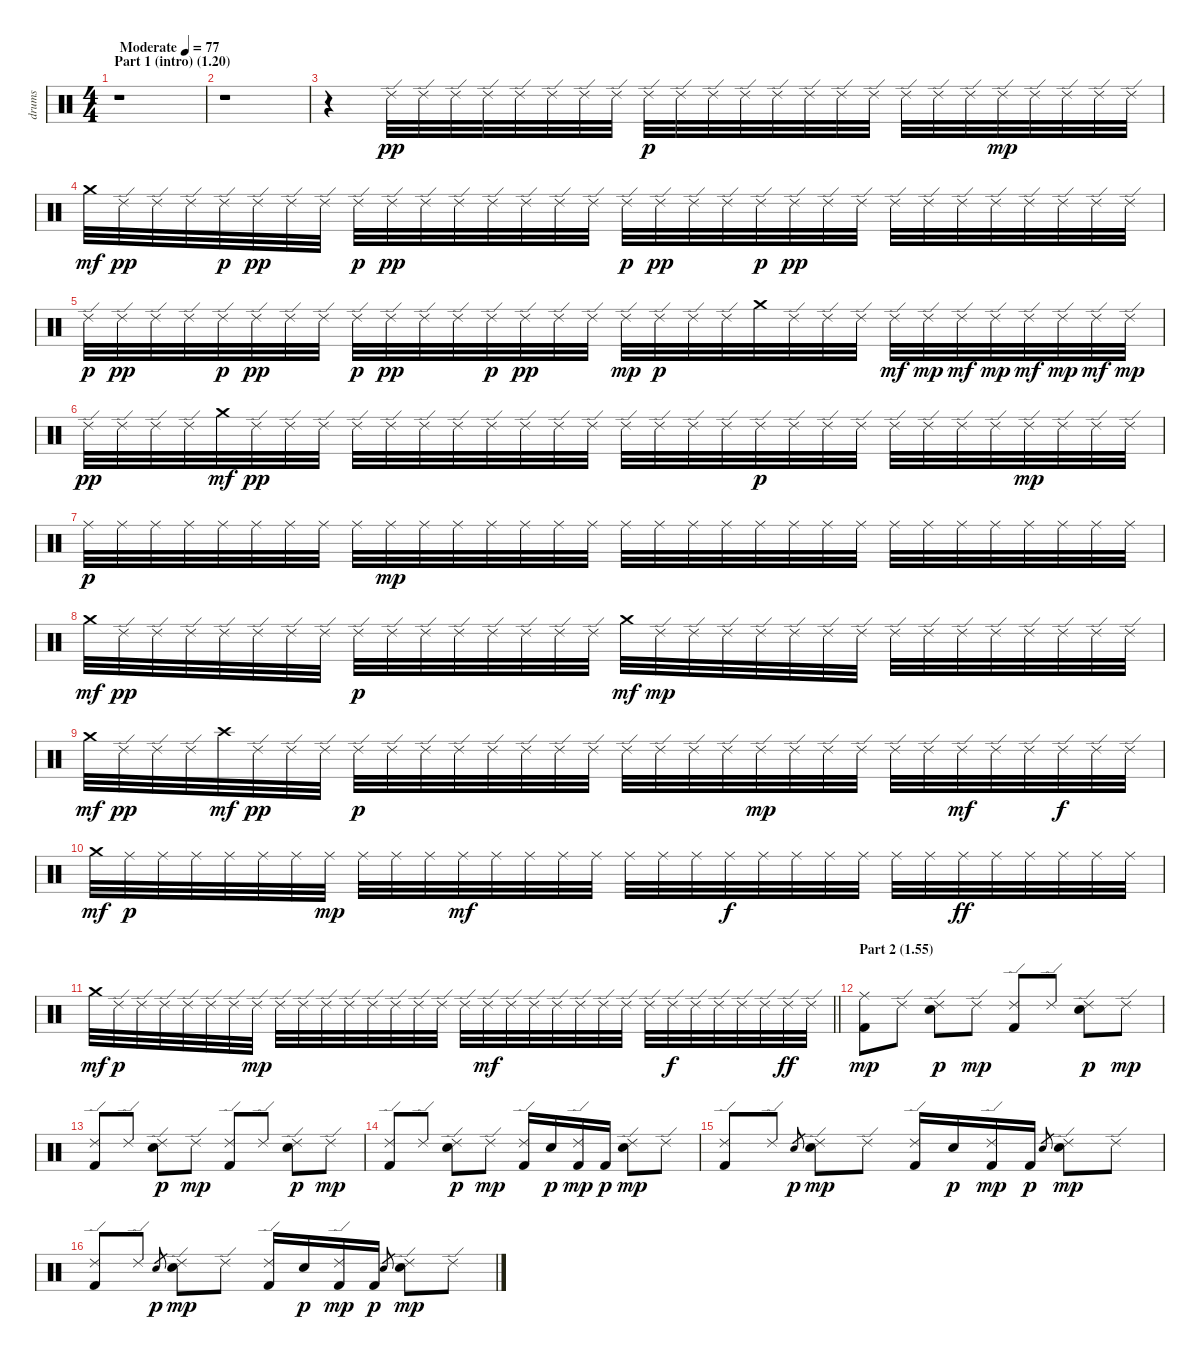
\track ("drums" "drums") {instrument percussion}
\staff {score}
\articulation defaults
\ts (4 4)
\section ("" "Part 1 (intro) (1.20)")
\tempo (77 "Moderate")
\clef neutral
\ks c
r.1{dy pp} |
r.1 |
r.4 "Ride (edge) 2".32 "Ride (edge) 2".32 "Ride (edge) 2".32 "Ride (edge) 2".32 "Ride (edge) 2".32 "Ride (edge) 2".32 "Ride (edge) 2".32 "Ride (edge) 2".32 "Ride (edge) 2".32{dy p} "Ride (edge) 2".32 "Ride (edge) 2".32 "Ride (edge) 2".32 "Ride (edge) 2".32 "Ride (edge) 2".32 "Ride (edge) 2".32 "Ride (edge) 2".32 "Ride (edge) 2".32 "Ride (edge) 2".32 "Ride (edge) 2".32 "Ride (edge) 2".32{dy mp} "Ride (edge) 2".32 "Ride (edge) 2".32 "Ride (edge) 2".32 "Ride (edge) 2".32 |
"Crash medium (hit)".32{dy mf} "Ride (edge) 2".32{dy pp} "Ride (edge) 2".32 "Ride (edge) 2".32 "Ride (edge) 2".32{dy p} "Ride (edge) 2".32{dy pp} "Ride (edge) 2".32 "Ride (edge) 2".32 "Ride (edge) 2".32{dy p} "Ride (edge) 2".32{dy pp} "Ride (edge) 2".32 "Ride (edge) 2".32 "Ride (edge) 2".32 "Ride (edge) 2".32 "Ride (edge) 2".32 "Ride (edge) 2".32 "Ride (edge) 2".32{dy p} "Ride (edge) 2".32{dy pp} "Ride (edge) 2".32 "Ride (edge) 2".32 "Ride (edge) 2".32{dy p} "Ride (edge) 2".32{dy pp} "Ride (edge) 2".32 "Ride (edge) 2".32 "Ride (edge) 2".32 "Ride (edge) 2".32 "Ride (edge) 2".32 "Ride (edge) 2".32 "Ride (edge) 2".32 "Ride (edge) 2".32 "Ride (edge) 2".32 "Ride (edge) 2".32 |
"Ride (edge) 2".32{dy p} "Ride (edge) 2".32{dy pp} "Ride (edge) 2".32 "Ride (edge) 2".32 "Ride (edge) 2".32{dy p} "Ride (edge) 2".32{dy pp} "Ride (edge) 2".32 "Ride (edge) 2".32 "Ride (edge) 2".32{dy p} "Ride (edge) 2".32{dy pp} "Ride (edge) 2".32 "Ride (edge) 2".32 "Ride (edge) 2".32{dy p} "Ride (edge) 2".32{dy pp} "Ride (edge) 2".32 "Ride (edge) 2".32 "Ride (edge) 2".32{dy mp} "Ride (edge) 2".32{dy p} "Ride (edge) 2".32 "Ride (edge) 2".32 "Crash medium (hit)".32 "Ride (edge) 2".32 "Ride (edge) 2".32 "Ride (edge) 2".32 "Ride (edge) 2".32{dy mf} "Ride (edge) 2".32{dy mp} "Ride (edge) 2".32{dy mf} "Ride (edge) 2".32{dy mp} "Ride (edge) 2".32{dy mf} "Ride (edge) 2".32{dy mp} "Ride (edge) 2".32{dy mf} "Ride (edge) 2".32{dy mp} |
"Ride (edge) 2".32{dy pp} "Ride (edge) 2".32 "Ride (edge) 2".32 "Ride (edge) 2".32 "Crash medium (hit)".32{dy mf} "Ride (edge) 2".32{dy pp} "Ride (edge) 2".32 "Ride (edge) 2".32 "Ride (edge) 2".32 "Ride (edge) 2".32 "Ride (edge) 2".32 "Ride (edge) 2".32 "Ride (edge) 2".32 "Ride (edge) 2".32 "Ride (edge) 2".32 "Ride (edge) 2".32 "Ride (edge) 2".32 "Ride (edge) 2".32 "Ride (edge) 2".32 "Ride (edge) 2".32 "Ride (edge) 2".32{dy p} "Ride (edge) 2".32 "Ride (edge) 2".32 "Ride (edge) 2".32 "Ride (edge) 2".32 "Ride (edge) 2".32 "Ride (edge) 2".32 "Ride (edge) 2".32 "Ride (edge) 2".32{dy mp} "Ride (edge) 2".32 "Ride (edge) 2".32 "Ride (edge) 2".32 |
"Ride (middle)".32{dy p} "Ride (middle)".32 "Ride (middle)".32 "Ride (middle)".32 "Ride (middle)".32 "Ride (middle)".32 "Ride (middle)".32 "Ride (middle)".32 "Ride (middle)".32 "Ride (middle)".32{dy mp} "Ride (middle)".32 "Ride (middle)".32 "Ride (middle)".32 "Ride (middle)".32 "Ride (middle)".32 "Ride (middle)".32 "Ride (middle)".32 "Ride (middle)".32 "Ride (middle)".32 "Ride (middle)".32 "Ride (middle)".32 "Ride (middle)".32 "Ride (middle)".32 "Ride (middle)".32 "Ride (middle)".32 "Ride (middle)".32 "Ride (middle)".32 "Ride (middle)".32 "Ride (middle)".32 "Ride (middle)".32 "Ride (middle)".32 "Ride (middle)".32 |
"Crash medium (hit)".32{dy mf} "Ride (edge) 2".32{dy pp} "Ride (edge) 2".32 "Ride (edge) 2".32 "Ride (edge) 2".32 "Ride (edge) 2".32 "Ride (edge) 2".32 "Ride (edge) 2".32 "Ride (edge) 2".32{dy p} "Ride (edge) 2".32 "Ride (edge) 2".32 "Ride (edge) 2".32 "Ride (edge) 2".32 "Ride (edge) 2".32 "Ride (edge) 2".32 "Ride (edge) 2".32 "Crash medium (hit)".32{dy mf} "Ride (edge) 2".32{dy mp} "Ride (edge) 2".32 "Ride (edge) 2".32 "Ride (edge) 2".32 "Ride (edge) 2".32 "Ride (edge) 2".32 "Ride (edge) 2".32 "Ride (edge) 2".32 "Ride (edge) 2".32 "Ride (edge) 2".32 "Ride (edge) 2".32 "Ride (edge) 2".32 "Ride (edge) 2".32 "Ride (edge) 2".32 "Ride (edge) 2".32 |
"Crash medium (hit)".32{dy mf} "Ride (edge) 2".32{dy pp} "Ride (edge) 2".32 "Ride (edge) 2".32 "Crash high (hit)".32{dy mf} "Ride (edge) 2".32{dy pp} "Ride (edge) 2".32 "Ride (edge) 2".32 "Ride (edge) 2".32{dy p} "Ride (edge) 2".32 "Ride (edge) 2".32 "Ride (edge) 2".32 "Ride (edge) 2".32 "Ride (edge) 2".32 "Ride (edge) 2".32 "Ride (edge) 2".32 "Ride (edge) 2".32 "Ride (edge) 2".32 "Ride (edge) 2".32 "Ride (edge) 2".32 "Ride (edge) 2".32{dy mp} "Ride (edge) 2".32 "Ride (edge) 2".32 "Ride (edge) 2".32 "Ride (edge) 2".32 "Ride (edge) 2".32 "Ride (edge) 2".32{dy mf} "Ride (edge) 2".32 "Ride (edge) 2".32 "Ride (edge) 2".32{dy f} "Ride (edge) 2".32 "Ride (edge) 2".32 |
"Crash medium (hit)".32{dy mf} "Ride (middle)".32{dy p} "Ride (middle)".32 "Ride (middle)".32 "Ride (middle)".32 "Ride (middle)".32 "Ride (middle)".32 "Ride (middle)".32{dy mp} "Ride (middle)".32 "Ride (middle)".32 "Ride (middle)".32 "Ride (middle)".32{dy mf} "Ride (middle)".32 "Ride (middle)".32 "Ride (middle)".32 "Ride (middle)".32 "Ride (middle)".32 "Ride (middle)".32 "Ride (middle)".32 "Ride (middle)".32{dy f} "Ride (middle)".32 "Ride (middle)".32 "Ride (middle)".32 "Ride (middle)".32 "Ride (middle)".32 "Ride (middle)".32 "Ride (middle)".32{dy ff} "Ride (middle)".32 "Ride (middle)".32 "Ride (middle)".32 "Ride (middle)".32 "Ride (middle)".32 |
\barLineRight lightlight "Crash medium (hit)".32{dy mf} "Ride (edge) 2".32{dy p} "Ride (edge) 2".32 "Ride (edge) 2".32 "Ride (edge) 2".32 "Ride (edge) 2".32 "Ride (edge) 2".32 "Ride (edge) 2".32{dy mp} "Ride (edge) 2".32 "Ride (edge) 2".32 "Ride (edge) 2".32 "Ride (edge) 2".32 "Ride (edge) 2".32 "Ride (edge) 2".32 "Ride (edge) 2".32 "Ride (edge) 2".32 "Ride (edge) 2".32 "Ride (edge) 2".32{dy mf} "Ride (edge) 2".32 "Ride (edge) 2".32 "Ride (edge) 2".32 "Ride (edge) 2".32 "Ride (edge) 2".32 "Ride (edge) 2".32 "Ride (edge) 2".32 "Ride (edge) 2".32{dy f} "Ride (edge) 2".32 "Ride (edge) 2".32 "Ride (edge) 2".32 "Ride (edge) 2".32 "Ride (edge) 2".32{dy ff} "Ride (edge) 2".32
|
\section ("" "Part 2 (1.55)")
("Ride (middle)" "Kick (hit) 2").8{dy mp} "Ride (edge) 2".8 ("Ride (edge) 2" "Snare (hit) 2").8{dy p} "Ride (edge) 2".8{dy mp} ("Ride (edge) 2" "Kick (hit) 2").8 "Ride (edge) 2".8 ("Ride (edge) 2" "Snare (hit) 2").8{dy p} "Ride (edge) 2".8{dy mp} |
("Ride (edge) 2" "Kick (hit) 2").8 "Ride (edge) 2".8 ("Ride (edge) 2" "Snare (hit) 2").8{dy p} "Ride (edge) 2".8{dy mp} ("Ride (edge) 2" "Kick (hit) 2").8 "Ride (edge) 2".8 ("Ride (edge) 2" "Snare (hit) 2").8{dy p} "Ride (edge) 2".8{dy mp} |
("Ride (edge) 2" "Kick (hit) 2").8 "Ride (edge) 2".8 ("Ride (edge) 2" "Snare (hit) 2").8{dy p} "Ride (edge) 2".8{dy mp} ("Ride (edge) 2" "Kick (hit) 2").16 "Snare (hit) 2".16{dy p} ("Kick (hit) 2" "Ride (edge) 2").16{dy mp} "Kick (hit) 2".16{dy p} ("Ride (edge) 2" "Snare (hit) 2").8{dy mp} "Ride (edge) 2".8 |
("Ride (edge) 2" "Kick (hit) 2").8 "Ride (edge) 2".8 "Snare (hit) 2".8{gr dy p} ("Ride (edge) 2" "Snare (hit) 2").8{dy mp} "Ride (edge) 2".8 ("Ride (edge) 2" "Kick (hit) 2").16 "Snare (hit) 2".16{dy p} ("Kick (hit) 2" "Ride (edge) 2").16{dy mp} "Kick (hit) 2".16{dy p} "Snare (hit) 2".8{gr} ("Ride (edge) 2" "Snare (hit) 2").8{dy mp} "Ride (edge) 2".8 |
("Ride (edge) 2" "Kick (hit) 2").8 "Ride (edge) 2".8 "Snare (hit) 2".8{gr dy p} ("Ride (edge) 2" "Snare (hit) 2").8{dy mp} "Ride (edge) 2".8 ("Ride (edge) 2" "Kick (hit) 2").16 "Snare (hit) 2".16{dy p} ("Kick (hit) 2" "Ride (edge) 2").16{dy mp} "Kick (hit) 2".16{dy p} "Snare (hit) 2".8{gr} ("Ride (edge) 2" "Snare (hit) 2").8{dy mp} "Ride (edge) 2".8
